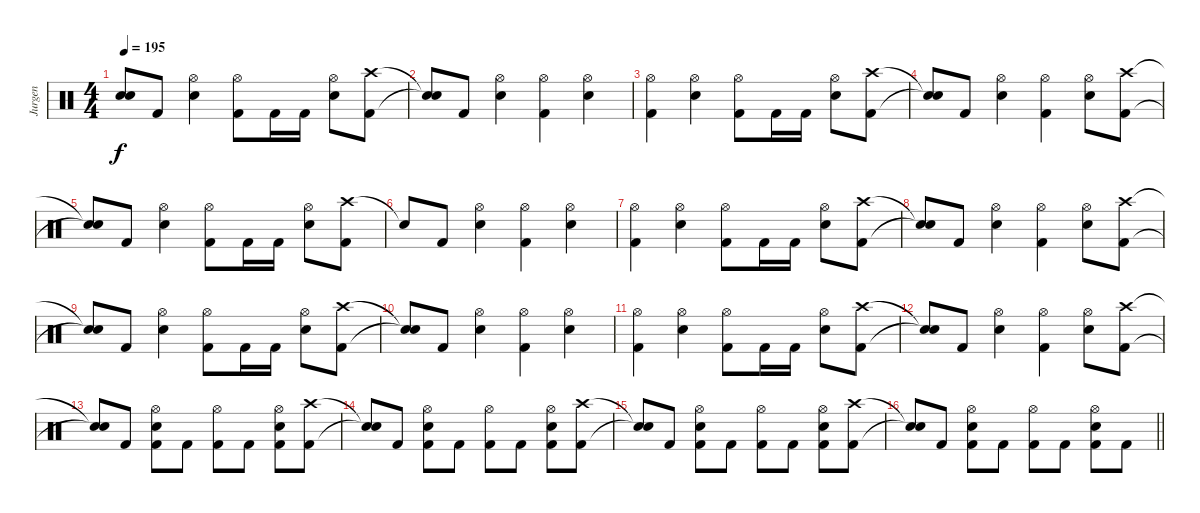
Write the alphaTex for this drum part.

\track ("Jurgen" "Jurgen") {instrument percussion}
\staff {score}
\articulation defaults
\ts (4 4)
\tempo 195
\clef neutral
\ks c
("Snare (hit)"{t} "Snare (hit)"{t}).8{dy f} "Kick (hit) 2".8 ("Hi-Hat (open)" "Snare (hit) 2").4 ("Hi-Hat (open)" "Kick (hit) 2").8 "Kick (hit) 2".16 "Kick (hit) 2".16 ("Hi-Hat (open)" "Snare (hit) 2").8 ("Crash high (hit)" "Kick (hit) 2").8 |
("Snare (hit)"{t} "Snare (hit)"{t}).8 "Kick (hit) 2".8 ("Hi-Hat (open)" "Snare (hit) 2").4 ("Hi-Hat (open)" "Kick (hit) 2").4 ("Hi-Hat (open)" "Snare (hit) 2").4 |
("Hi-Hat (open)" "Kick (hit) 2").4 ("Hi-Hat (open)" "Snare (hit) 2").4 ("Hi-Hat (open)" "Kick (hit) 2").8 "Kick (hit) 2".16 "Kick (hit) 2".16 ("Hi-Hat (open)" "Snare (hit) 2").8 ("Crash high (hit)" "Kick (hit) 2").8 |
("Snare (hit)"{t} "Snare (hit)"{t}).8 "Kick (hit) 2".8 ("Hi-Hat (open)" "Snare (hit) 2").4 ("Hi-Hat (open)" "Kick (hit) 2").4 ("Hi-Hat (open)" "Snare (hit) 2").8 ("Crash high (hit)" "Kick (hit) 2").8 |
("Snare (hit)"{t} "Snare (hit)"{t}).8 "Kick (hit) 2".8 ("Hi-Hat (open)" "Snare (hit) 2").4 ("Hi-Hat (open)" "Kick (hit) 2").8 "Kick (hit) 2".16 "Kick (hit) 2".16 ("Hi-Hat (open)" "Snare (hit) 2").8 ("Crash high (hit)" "Kick (hit) 2").8 |
"Snare (hit)"{t}.8 "Kick (hit) 2".8 ("Hi-Hat (open)" "Snare (hit) 2").4 ("Hi-Hat (open)" "Kick (hit) 2").4 ("Hi-Hat (open)" "Snare (hit) 2").4 |
("Hi-Hat (open)" "Kick (hit) 2").4 ("Hi-Hat (open)" "Snare (hit) 2").4 ("Hi-Hat (open)" "Kick (hit) 2").8 "Kick (hit) 2".16 "Kick (hit) 2".16 ("Hi-Hat (open)" "Snare (hit) 2").8 ("Crash high (hit)" "Kick (hit) 2").8 |
("Snare (hit)"{t} "Snare (hit)"{t}).8 "Kick (hit) 2".8 ("Hi-Hat (open)" "Snare (hit) 2").4 ("Hi-Hat (open)" "Kick (hit) 2").4 ("Hi-Hat (open)" "Snare (hit) 2").8 ("Crash high (hit)" "Kick (hit) 2").8 |
("Snare (hit)"{t} "Snare (hit)"{t}).8 "Kick (hit) 2".8 ("Hi-Hat (open)" "Snare (hit) 2").4 ("Hi-Hat (open)" "Kick (hit) 2").8 "Kick (hit) 2".16 "Kick (hit) 2".16 ("Hi-Hat (open)" "Snare (hit) 2").8 ("Crash high (hit)" "Kick (hit) 2").8 |
("Snare (hit)"{t} "Snare (hit)"{t}).8 "Kick (hit) 2".8 ("Hi-Hat (open)" "Snare (hit) 2").4 ("Hi-Hat (open)" "Kick (hit) 2").4 ("Hi-Hat (open)" "Snare (hit) 2").4 |
("Hi-Hat (open)" "Kick (hit) 2").4 ("Hi-Hat (open)" "Snare (hit) 2").4 ("Hi-Hat (open)" "Kick (hit) 2").8 "Kick (hit) 2".16 "Kick (hit) 2".16 ("Hi-Hat (open)" "Snare (hit) 2").8 ("Crash high (hit)" "Kick (hit) 2").8 |
("Snare (hit)"{t} "Snare (hit)"{t}).8 "Kick (hit) 2".8 ("Hi-Hat (open)" "Snare (hit) 2").4 ("Hi-Hat (open)" "Kick (hit) 2").4 ("Hi-Hat (open)" "Snare (hit) 2").8 ("Crash high (hit)" "Kick (hit) 2").8 |
("Snare (hit)"{t} "Snare (hit)"{t}).8 "Kick (hit) 2".8 ("Hi-Hat (open)" "Snare (hit) 2" "Kick (hit) 2").8 "Kick (hit) 2".8 ("Hi-Hat (open)" "Kick (hit) 2").8 "Kick (hit) 2".8 ("Hi-Hat (open)" "Snare (hit) 2" "Kick (hit) 2").8 ("Crash high (hit)" "Kick (hit) 2").8 |
("Snare (hit)"{t} "Snare (hit)"{t}).8 "Kick (hit) 2".8 ("Hi-Hat (open)" "Snare (hit) 2" "Kick (hit) 2").8 "Kick (hit) 2".8 ("Hi-Hat (open)" "Kick (hit) 2").8 "Kick (hit) 2".8 ("Hi-Hat (open)" "Snare (hit) 2" "Kick (hit) 2").8 ("Crash high (hit)" "Kick (hit) 2").8 |
("Snare (hit)"{t} "Snare (hit)"{t}).8 "Kick (hit) 2".8 ("Hi-Hat (open)" "Snare (hit) 2" "Kick (hit) 2").8 "Kick (hit) 2".8 ("Hi-Hat (open)" "Kick (hit) 2").8 "Kick (hit) 2".8 ("Hi-Hat (open)" "Snare (hit) 2" "Kick (hit) 2").8 ("Crash high (hit)" "Kick (hit) 2").8 |
\barLineRight lightlight
("Snare (hit)"{t} "Snare (hit)"{t}).8 "Kick (hit) 2".8 ("Hi-Hat (open)" "Snare (hit) 2" "Kick (hit) 2").8 "Kick (hit) 2".8 ("Hi-Hat (open)" "Kick (hit) 2").8 "Kick (hit) 2".8 ("Hi-Hat (open)" "Snare (hit) 2" "Kick (hit) 2").8 "Kick (hit) 2".8
